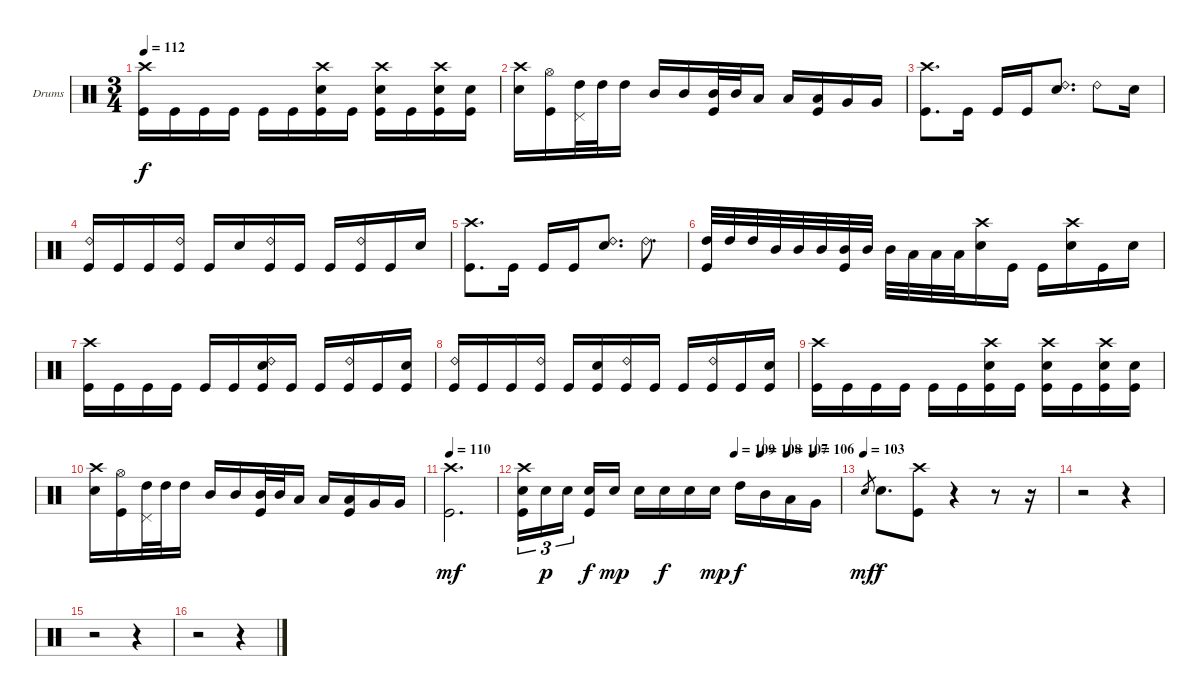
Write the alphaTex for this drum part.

\bracketExtendMode groupsimilarinstruments
\firstSystemTrackNameOrientation horizontal
\otherSystemsTrackNameOrientation horizontal
\track ("Drumkit" "Drums") {instrument percussion}
\staff {score}
\articulation defaults
\ts (3 4)
\tempo 112
\clef neutral
\ks c
("Crash high (hit)" "Kick (hit)").16{dy f} "Kick (hit)".16 "Kick (hit)".16 "Kick (hit)".16 "Kick (hit)".16 "Kick (hit)".16 ("Crash high (hit)" "Snare (hit) 2" "Kick (hit)").16 "Kick (hit)".16 ("Crash high (hit)" "Snare (hit) 2" "Kick (hit)").16 "Kick (hit)".16 ("Crash high (hit)" "Snare (hit) 2" "Kick (hit)").16 ("Snare (hit) 2" "Kick (hit)").16 |
("Crash high (hit)" "Snare (hit) 2").16 ("Hi-Hat (open)" "Kick (hit)").16 ("Pedal Hi-Hat (hit)" "High Tom (hit)").32 "High Tom (hit)".32 "High Tom (hit)".16 "Mid Tom (hit)".16 "Mid Tom (hit)".16 ("Mid Tom (hit)" "Kick (hit)").32 "Mid Tom (hit)".32 "Low Tom (hit)".16 "Low Tom (hit)".16 ("Low Tom (hit)" "Kick (hit)").16 "Very Low Tom (hit)".16 "Very Low Tom (hit)".16 |
("Crash high (hit)" "Kick (hit)").8{d} "Kick (hit)".16 "Kick (hit)".16 "Kick (hit)".16 ("Ride (bell) 2" "Snare (hit) 2").8{d} "Ride (bell) 2".8 "Snare (hit) 2".16 |
("Ride (bell) 2" "Kick (hit)").16 "Kick (hit)".16 "Kick (hit)".16 ("Ride (bell) 2" "Kick (hit)").16 "Kick (hit)".16 "Snare (hit) 2".16 ("Ride (bell) 2" "Kick (hit)").16 "Kick (hit)".16 "Kick (hit)".16 ("Ride (bell) 2" "Kick (hit)").16 "Kick (hit)".16 "Snare (hit) 2".16 |
("Crash high (hit)" "Kick (hit)").8{d} "Kick (hit)".16 "Kick (hit)".16 "Kick (hit)".16 ("Ride (bell) 2" "Snare (hit) 2").8{d} "Ride (bell) 2".8{d} |
("High Tom (hit)" "Kick (hit)").32 "High Tom (hit)".32 "High Tom (hit)".32 "Mid Tom (hit)".32 "Mid Tom (hit)".32 "Mid Tom (hit)".32 ("Mid Tom (hit)" "Kick (hit)").32 "Mid Tom (hit)".32 "Mid Tom (hit)".32 "Low Tom (hit)".32 "Low Tom (hit)".32 "Low Tom (hit)".32 ("Crash high (hit)" "Snare (hit) 2").16 "Kick (hit)".16 "Kick (hit)".16 ("Crash high (hit)" "Snare (hit) 2").16 "Kick (hit)".16 "Snare (hit) 2".16 |
("Crash high (hit)" "Kick (hit)").16 "Kick (hit)".16 "Kick (hit)".16 "Kick (hit)".16 "Kick (hit)".16 "Kick (hit)".16 ("Ride (bell) 2" "Snare (hit) 2" "Kick (hit)").16 "Kick (hit)".16 "Kick (hit)".16 ("Ride (bell) 2" "Kick (hit)").16 "Kick (hit)".16 ("Snare (hit) 2" "Kick (hit)").16 |
("Ride (bell) 2" "Kick (hit)").16 "Kick (hit)".16 "Kick (hit)".16 ("Ride (bell) 2" "Kick (hit)").16 "Kick (hit)".16 ("Snare (hit) 2" "Kick (hit)").16 ("Ride (bell) 2" "Kick (hit)").16 "Kick (hit)".16 "Kick (hit)".16 ("Ride (bell) 2" "Kick (hit)").16 "Kick (hit)".16 ("Snare (hit) 2" "Kick (hit)").16 |
("Crash high (hit)" "Kick (hit)").16 "Kick (hit)".16 "Kick (hit)".16 "Kick (hit)".16 "Kick (hit)".16 "Kick (hit)".16 ("Crash high (hit)" "Snare (hit) 2" "Kick (hit)").16 "Kick (hit)".16 ("Crash high (hit)" "Snare (hit) 2" "Kick (hit)").16 "Kick (hit)".16 ("Crash high (hit)" "Snare (hit) 2" "Kick (hit)").16 ("Snare (hit) 2" "Kick (hit)").16 |
("Crash high (hit)" "Snare (hit) 2").16 ("Hi-Hat (open)" "Kick (hit)").16 ("Pedal Hi-Hat (hit)" "High Tom (hit)").32 "High Tom (hit)".32 "High Tom (hit)".16 "Mid Tom (hit)".16 "Mid Tom (hit)".16 ("Mid Tom (hit)" "Kick (hit)").32 "Mid Tom (hit)".32 "Low Tom (hit)".16 "Low Tom (hit)".16 ("Low Tom (hit)" "Kick (hit)").16 "Very Low Tom (hit)".16 "Very Low Tom (hit)".16 |
\tempo 110
("Crash high (hit)" "Kick (hit)").2{d dy mf} |
\tempo (109 0.666667)
\tempo (108 0.75)
\tempo (107 0.833333)
\tempo (106 0.916667)
("Crash high (hit)" "Snare (hit) 2" "Kick (hit)").16{tu (3 2)} "Snare (hit) 2".16{tu (3 2) dy p} "Snare (hit) 2".16{tu (3 2)} ("Snare (hit) 2" "Kick (hit)").16{dy f} "Snare (hit) 2".16{dy mp} "Snare (hit) 2".16 "Snare (hit) 2".16{dy f} "Snare (hit) 2".16 "Snare (hit) 2".16{dy mp} "High Tom (hit)".16{dy f} "Mid Tom (hit)".16 "Low Tom (hit)".16 "Very Low Tom (hit)".16 |
\tempo (103)
"Snare (hit) 2".8{gr dy mf} "Snare (hit) 2".8{d dy f} ("Crash high (hit)" "Kick (hit)").8 r.4 r.8 r.16 |
r.2 r.4 |
r.2 r.4 |
r.2 r.4
